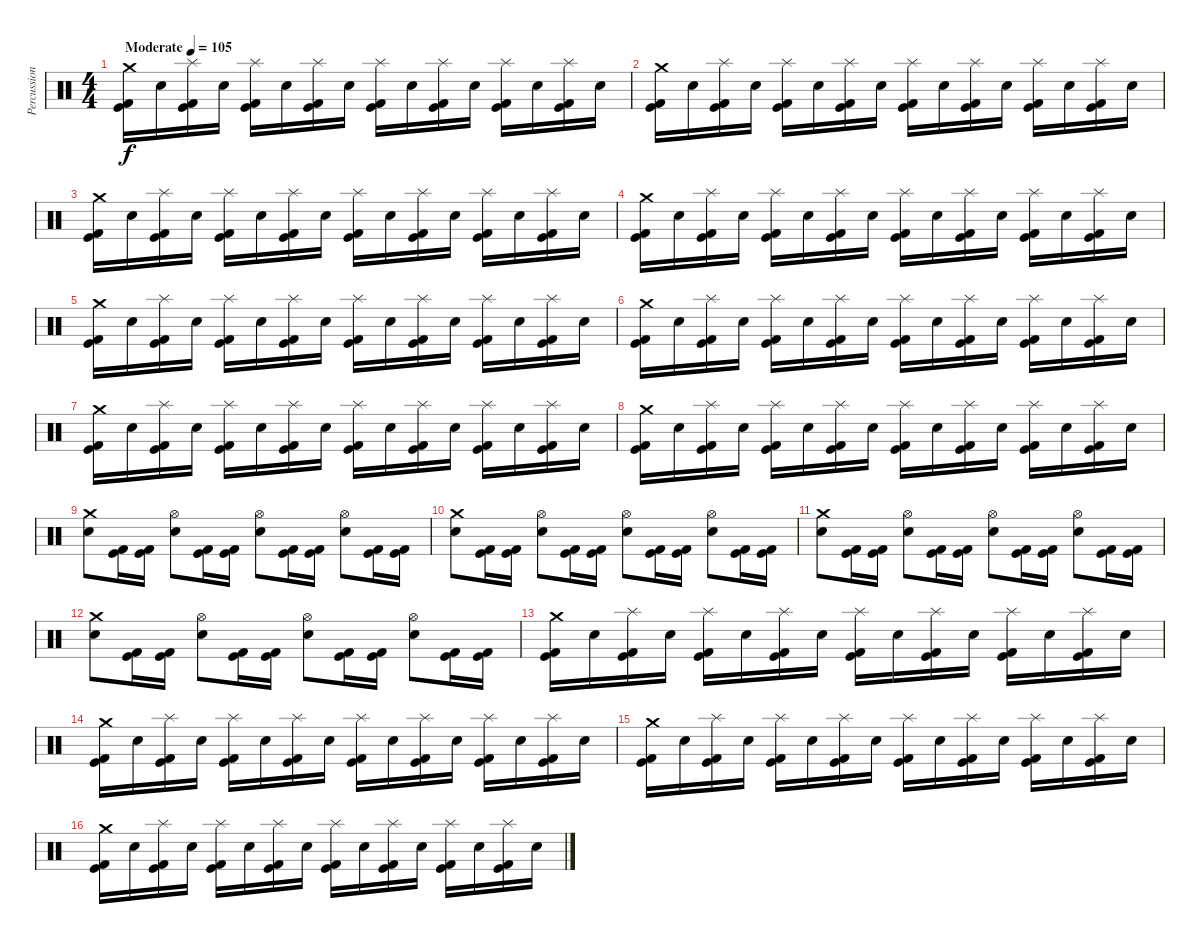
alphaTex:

\track ("Percussions" "Percussion") {instrument percussion}
\staff {score}
\articulation defaults
\ts (4 4)
\tempo (105 "Moderate")
\clef neutral
\ks c
("Crash medium (hit)" "Kick (hit)" "Kick (hit) 2").16{dy f} "Electric Snare (hit)".16 ("Splash (hit)" "Kick (hit)" "Kick (hit) 2").16 "Electric Snare (hit)".16 ("Splash (hit)" "Kick (hit)" "Kick (hit) 2").16 "Electric Snare (hit)".16 ("Splash (hit)" "Kick (hit)" "Kick (hit) 2").16 "Electric Snare (hit)".16 ("Splash (hit)" "Kick (hit)" "Kick (hit) 2").16 "Electric Snare (hit)".16 ("Splash (hit)" "Kick (hit)" "Kick (hit) 2").16 "Electric Snare (hit)".16 ("Splash (hit)" "Kick (hit)" "Kick (hit) 2").16 "Electric Snare (hit)".16 ("Splash (hit)" "Kick (hit)" "Kick (hit) 2").16 "Electric Snare (hit)".16 |
("Crash medium (hit)" "Kick (hit)" "Kick (hit) 2").16 "Electric Snare (hit)".16 ("Splash (hit)" "Kick (hit)" "Kick (hit) 2").16 "Electric Snare (hit)".16 ("Splash (hit)" "Kick (hit)" "Kick (hit) 2").16 "Electric Snare (hit)".16 ("Splash (hit)" "Kick (hit)" "Kick (hit) 2").16 "Electric Snare (hit)".16 ("Splash (hit)" "Kick (hit)" "Kick (hit) 2").16 "Electric Snare (hit)".16 ("Splash (hit)" "Kick (hit)" "Kick (hit) 2").16 "Electric Snare (hit)".16 ("Splash (hit)" "Kick (hit)" "Kick (hit) 2").16 "Electric Snare (hit)".16 ("Splash (hit)" "Kick (hit)" "Kick (hit) 2").16 "Electric Snare (hit)".16 |
("Crash medium (hit)" "Kick (hit)" "Kick (hit) 2").16 "Electric Snare (hit)".16 ("Splash (hit)" "Kick (hit)" "Kick (hit) 2").16 "Electric Snare (hit)".16 ("Splash (hit)" "Kick (hit)" "Kick (hit) 2").16 "Electric Snare (hit)".16 ("Splash (hit)" "Kick (hit)" "Kick (hit) 2").16 "Electric Snare (hit)".16 ("Splash (hit)" "Kick (hit)" "Kick (hit) 2").16 "Electric Snare (hit)".16 ("Splash (hit)" "Kick (hit)" "Kick (hit) 2").16 "Electric Snare (hit)".16 ("Splash (hit)" "Kick (hit)" "Kick (hit) 2").16 "Electric Snare (hit)".16 ("Splash (hit)" "Kick (hit)" "Kick (hit) 2").16 "Electric Snare (hit)".16 |
("Crash medium (hit)" "Kick (hit)" "Kick (hit) 2").16 "Electric Snare (hit)".16 ("Splash (hit)" "Kick (hit)" "Kick (hit) 2").16 "Electric Snare (hit)".16 ("Splash (hit)" "Kick (hit)" "Kick (hit) 2").16 "Electric Snare (hit)".16 ("Splash (hit)" "Kick (hit)" "Kick (hit) 2").16 "Electric Snare (hit)".16 ("Splash (hit)" "Kick (hit)" "Kick (hit) 2").16 "Electric Snare (hit)".16 ("Splash (hit)" "Kick (hit)" "Kick (hit) 2").16 "Electric Snare (hit)".16 ("Splash (hit)" "Kick (hit)" "Kick (hit) 2").16 "Electric Snare (hit)".16 ("Splash (hit)" "Kick (hit)" "Kick (hit) 2").16 "Electric Snare (hit)".16 |
("Crash medium (hit)" "Kick (hit)" "Kick (hit) 2").16 "Electric Snare (hit)".16 ("Splash (hit)" "Kick (hit)" "Kick (hit) 2").16 "Electric Snare (hit)".16 ("Splash (hit)" "Kick (hit)" "Kick (hit) 2").16 "Electric Snare (hit)".16 ("Splash (hit)" "Kick (hit)" "Kick (hit) 2").16 "Electric Snare (hit)".16 ("Splash (hit)" "Kick (hit)" "Kick (hit) 2").16 "Electric Snare (hit)".16 ("Splash (hit)" "Kick (hit)" "Kick (hit) 2").16 "Electric Snare (hit)".16 ("Splash (hit)" "Kick (hit)" "Kick (hit) 2").16 "Electric Snare (hit)".16 ("Splash (hit)" "Kick (hit)" "Kick (hit) 2").16 "Electric Snare (hit)".16 |
("Crash medium (hit)" "Kick (hit)" "Kick (hit) 2").16 "Electric Snare (hit)".16 ("Splash (hit)" "Kick (hit)" "Kick (hit) 2").16 "Electric Snare (hit)".16 ("Splash (hit)" "Kick (hit)" "Kick (hit) 2").16 "Electric Snare (hit)".16 ("Splash (hit)" "Kick (hit)" "Kick (hit) 2").16 "Electric Snare (hit)".16 ("Splash (hit)" "Kick (hit)" "Kick (hit) 2").16 "Electric Snare (hit)".16 ("Splash (hit)" "Kick (hit)" "Kick (hit) 2").16 "Electric Snare (hit)".16 ("Splash (hit)" "Kick (hit)" "Kick (hit) 2").16 "Electric Snare (hit)".16 ("Splash (hit)" "Kick (hit)" "Kick (hit) 2").16 "Electric Snare (hit)".16 |
("Crash medium (hit)" "Kick (hit)" "Kick (hit) 2").16 "Electric Snare (hit)".16 ("Splash (hit)" "Kick (hit)" "Kick (hit) 2").16 "Electric Snare (hit)".16 ("Splash (hit)" "Kick (hit)" "Kick (hit) 2").16 "Electric Snare (hit)".16 ("Splash (hit)" "Kick (hit)" "Kick (hit) 2").16 "Electric Snare (hit)".16 ("Splash (hit)" "Kick (hit)" "Kick (hit) 2").16 "Electric Snare (hit)".16 ("Splash (hit)" "Kick (hit)" "Kick (hit) 2").16 "Electric Snare (hit)".16 ("Splash (hit)" "Kick (hit)" "Kick (hit) 2").16 "Electric Snare (hit)".16 ("Splash (hit)" "Kick (hit)" "Kick (hit) 2").16 "Electric Snare (hit)".16 |
("Crash medium (hit)" "Kick (hit)" "Kick (hit) 2").16 "Electric Snare (hit)".16 ("Splash (hit)" "Kick (hit)" "Kick (hit) 2").16 "Electric Snare (hit)".16 ("Splash (hit)" "Kick (hit)" "Kick (hit) 2").16 "Electric Snare (hit)".16 ("Splash (hit)" "Kick (hit)" "Kick (hit) 2").16 "Electric Snare (hit)".16 ("Splash (hit)" "Kick (hit)" "Kick (hit) 2").16 "Electric Snare (hit)".16 ("Splash (hit)" "Kick (hit)" "Kick (hit) 2").16 "Electric Snare (hit)".16 ("Splash (hit)" "Kick (hit)" "Kick (hit) 2").16 "Electric Snare (hit)".16 ("Splash (hit)" "Kick (hit)" "Kick (hit) 2").16 "Electric Snare (hit)".16 |
("Crash medium (hit)" "Electric Snare (hit)").8 ("Kick (hit)" "Kick (hit) 2").16 ("Kick (hit)" "Kick (hit) 2").16 ("Hi-Hat (open)" "Electric Snare (hit)").8 ("Kick (hit)" "Kick (hit) 2").16 ("Kick (hit)" "Kick (hit) 2").16 ("Hi-Hat (open)" "Electric Snare (hit)").8 ("Kick (hit)" "Kick (hit) 2").16 ("Kick (hit)" "Kick (hit) 2").16 ("Hi-Hat (open)" "Electric Snare (hit)").8 ("Kick (hit)" "Kick (hit) 2").16 ("Kick (hit)" "Kick (hit) 2").16 |
("Crash medium (hit)" "Electric Snare (hit)").8 ("Kick (hit)" "Kick (hit) 2").16 ("Kick (hit)" "Kick (hit) 2").16 ("Hi-Hat (open)" "Electric Snare (hit)").8 ("Kick (hit)" "Kick (hit) 2").16 ("Kick (hit)" "Kick (hit) 2").16 ("Hi-Hat (open)" "Electric Snare (hit)").8 ("Kick (hit)" "Kick (hit) 2").16 ("Kick (hit)" "Kick (hit) 2").16 ("Hi-Hat (open)" "Electric Snare (hit)").8 ("Kick (hit)" "Kick (hit) 2").16 ("Kick (hit)" "Kick (hit) 2").16 |
("Crash medium (hit)" "Electric Snare (hit)").8 ("Kick (hit)" "Kick (hit) 2").16 ("Kick (hit)" "Kick (hit) 2").16 ("Hi-Hat (open)" "Electric Snare (hit)").8 ("Kick (hit)" "Kick (hit) 2").16 ("Kick (hit)" "Kick (hit) 2").16 ("Hi-Hat (open)" "Electric Snare (hit)").8 ("Kick (hit)" "Kick (hit) 2").16 ("Kick (hit)" "Kick (hit) 2").16 ("Hi-Hat (open)" "Electric Snare (hit)").8 ("Kick (hit)" "Kick (hit) 2").16 ("Kick (hit)" "Kick (hit) 2").16 |
("Crash medium (hit)" "Electric Snare (hit)").8 ("Kick (hit)" "Kick (hit) 2").16 ("Kick (hit)" "Kick (hit) 2").16 ("Hi-Hat (open)" "Electric Snare (hit)").8 ("Kick (hit)" "Kick (hit) 2").16 ("Kick (hit)" "Kick (hit) 2").16 ("Hi-Hat (open)" "Electric Snare (hit)").8 ("Kick (hit)" "Kick (hit) 2").16 ("Kick (hit)" "Kick (hit) 2").16 ("Hi-Hat (open)" "Electric Snare (hit)").8 ("Kick (hit)" "Kick (hit) 2").16 ("Kick (hit)" "Kick (hit) 2").16 |
("Crash medium (hit)" "Kick (hit)" "Kick (hit) 2").16 "Electric Snare (hit)".16 ("Splash (hit)" "Kick (hit)" "Kick (hit) 2").16 "Electric Snare (hit)".16 ("Splash (hit)" "Kick (hit)" "Kick (hit) 2").16 "Electric Snare (hit)".16 ("Splash (hit)" "Kick (hit)" "Kick (hit) 2").16 "Electric Snare (hit)".16 ("Splash (hit)" "Kick (hit)" "Kick (hit) 2").16 "Electric Snare (hit)".16 ("Splash (hit)" "Kick (hit)" "Kick (hit) 2").16 "Electric Snare (hit)".16 ("Splash (hit)" "Kick (hit)" "Kick (hit) 2").16 "Electric Snare (hit)".16 ("Splash (hit)" "Kick (hit)" "Kick (hit) 2").16 "Electric Snare (hit)".16 |
("Crash medium (hit)" "Kick (hit)" "Kick (hit) 2").16 "Electric Snare (hit)".16 ("Splash (hit)" "Kick (hit)" "Kick (hit) 2").16 "Electric Snare (hit)".16 ("Splash (hit)" "Kick (hit)" "Kick (hit) 2").16 "Electric Snare (hit)".16 ("Splash (hit)" "Kick (hit)" "Kick (hit) 2").16 "Electric Snare (hit)".16 ("Splash (hit)" "Kick (hit)" "Kick (hit) 2").16 "Electric Snare (hit)".16 ("Splash (hit)" "Kick (hit)" "Kick (hit) 2").16 "Electric Snare (hit)".16 ("Splash (hit)" "Kick (hit)" "Kick (hit) 2").16 "Electric Snare (hit)".16 ("Splash (hit)" "Kick (hit)" "Kick (hit) 2").16 "Electric Snare (hit)".16 |
("Crash medium (hit)" "Kick (hit)" "Kick (hit) 2").16 "Electric Snare (hit)".16 ("Splash (hit)" "Kick (hit)" "Kick (hit) 2").16 "Electric Snare (hit)".16 ("Splash (hit)" "Kick (hit)" "Kick (hit) 2").16 "Electric Snare (hit)".16 ("Splash (hit)" "Kick (hit)" "Kick (hit) 2").16 "Electric Snare (hit)".16 ("Splash (hit)" "Kick (hit)" "Kick (hit) 2").16 "Electric Snare (hit)".16 ("Splash (hit)" "Kick (hit)" "Kick (hit) 2").16 "Electric Snare (hit)".16 ("Splash (hit)" "Kick (hit)" "Kick (hit) 2").16 "Electric Snare (hit)".16 ("Splash (hit)" "Kick (hit)" "Kick (hit) 2").16 "Electric Snare (hit)".16 |
("Crash medium (hit)" "Kick (hit)" "Kick (hit) 2").16 "Electric Snare (hit)".16 ("Splash (hit)" "Kick (hit)" "Kick (hit) 2").16 "Electric Snare (hit)".16 ("Splash (hit)" "Kick (hit)" "Kick (hit) 2").16 "Electric Snare (hit)".16 ("Splash (hit)" "Kick (hit)" "Kick (hit) 2").16 "Electric Snare (hit)".16 ("Splash (hit)" "Kick (hit)" "Kick (hit) 2").16 "Electric Snare (hit)".16 ("Splash (hit)" "Kick (hit)" "Kick (hit) 2").16 "Electric Snare (hit)".16 ("Splash (hit)" "Kick (hit)" "Kick (hit) 2").16 "Electric Snare (hit)".16 ("Splash (hit)" "Kick (hit)" "Kick (hit) 2").16 "Electric Snare (hit)".16
